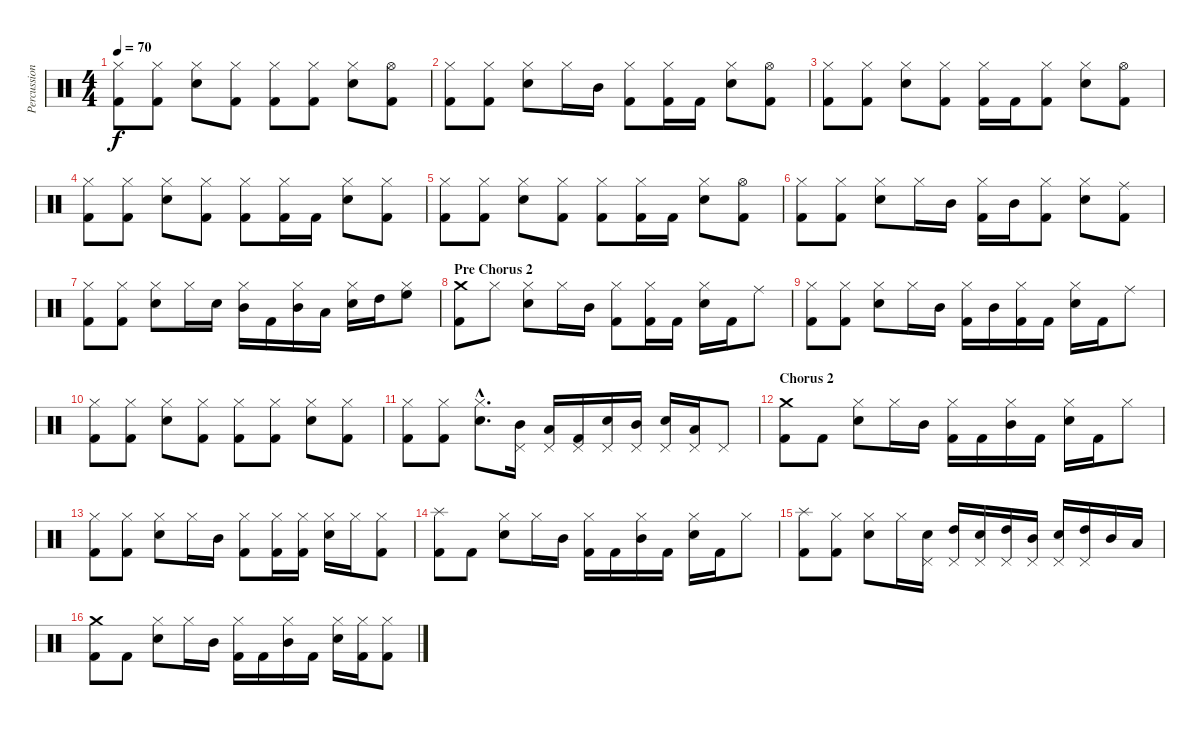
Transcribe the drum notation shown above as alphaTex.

\track ("Percussion" "Percussion") {instrument percussion}
\staff {score}
\articulation defaults
\ts (4 4)
\tempo 70
\clef neutral
\ks c
("Hi-Hat (closed)" "Kick (hit) 2").8{dy f} ("Hi-Hat (closed)" "Kick (hit) 2").8 ("Hi-Hat (closed)" "Electric Snare (hit)").8 ("Hi-Hat (closed)" "Kick (hit) 2").8 ("Hi-Hat (closed)" "Kick (hit) 2").8 ("Hi-Hat (closed)" "Kick (hit) 2").8 ("Hi-Hat (closed)" "Electric Snare (hit)").8 ("Hi-Hat (open)" "Kick (hit) 2").8 |
("Hi-Hat (closed)" "Kick (hit) 2").8 ("Hi-Hat (closed)" "Kick (hit) 2").8 ("Hi-Hat (closed)" "Electric Snare (hit)").8 "Hi-Hat (closed)".16 "Mid Tom (hit)".16 ("Hi-Hat (closed)" "Kick (hit) 2").8 ("Hi-Hat (closed)" "Kick (hit) 2").16 "Kick (hit) 2".16 ("Hi-Hat (closed)" "Electric Snare (hit)").8 ("Hi-Hat (open)" "Kick (hit) 2").8 |
("Hi-Hat (closed)" "Kick (hit) 2").8 ("Hi-Hat (closed)" "Kick (hit) 2").8 ("Hi-Hat (closed)" "Electric Snare (hit)").8 ("Hi-Hat (closed)" "Kick (hit) 2").8 ("Hi-Hat (closed)" "Kick (hit) 2").16 "Kick (hit) 2".16 ("Hi-Hat (closed)" "Kick (hit) 2").8 ("Hi-Hat (closed)" "Electric Snare (hit)").8 ("Hi-Hat (open)" "Kick (hit) 2").8 |
("Hi-Hat (closed)" "Kick (hit) 2").8 ("Hi-Hat (closed)" "Kick (hit) 2").8 ("Hi-Hat (closed)" "Electric Snare (hit)").8 ("Hi-Hat (closed)" "Kick (hit) 2").8 ("Hi-Hat (closed)" "Kick (hit) 2").8 ("Hi-Hat (closed)" "Kick (hit) 2").16 "Kick (hit) 2".16 ("Hi-Hat (closed)" "Electric Snare (hit)").8 ("Hi-Hat (closed)" "Kick (hit) 2").8 |
("Hi-Hat (closed)" "Kick (hit) 2").8 ("Hi-Hat (closed)" "Kick (hit) 2").8 ("Hi-Hat (closed)" "Electric Snare (hit)").8 ("Hi-Hat (closed)" "Kick (hit) 2").8 ("Hi-Hat (closed)" "Kick (hit) 2").8 ("Hi-Hat (closed)" "Kick (hit) 2").16 "Kick (hit) 2".16 ("Hi-Hat (closed)" "Electric Snare (hit)").8 ("Hi-Hat (open)" "Kick (hit) 2").8 |
("Hi-Hat (closed)" "Kick (hit) 2").8 ("Hi-Hat (closed)" "Kick (hit) 2").8 ("Hi-Hat (closed)" "Electric Snare (hit)").8 "Hi-Hat (closed)".16 "Mid Tom (hit)".16 ("Hi-Hat (closed)" "Kick (hit) 2").16 "Mid Tom (hit)".16 ("Hi-Hat (closed)" "Kick (hit) 2").8 ("Hi-Hat (closed)" "Electric Snare (hit)").8 ("Ride (middle)" "Kick (hit) 2").8 |
("Hi-Hat (closed)" "Kick (hit) 2").8 ("Hi-Hat (closed)" "Kick (hit) 2").8 ("Hi-Hat (closed)" "Electric Snare (hit)").8 "Hi-Hat (closed)".16 "Electric Snare (hit)".16 ("Hi-Hat (closed)" "Mid Tom (hit)").16 "Kick (hit) 2".16 ("Hi-Hat (closed)" "Mid Tom (hit)").16 "Low Tom (hit)".16 ("Hi-Hat (closed)" "Electric Snare (hit)").16 "High Tom (hit)".16 ("Hi-Hat (closed)" "High Floor Tom (hit)").8 |
\section ("" "Pre Chorus 2")
("Crash medium (hit)" "Kick (hit) 2").8 "Hi-Hat (closed)".8 ("Hi-Hat (closed)" "Electric Snare (hit)").8 "Hi-Hat (closed)".16 "Mid Tom (hit)".16 ("Hi-Hat (closed)" "Kick (hit) 2").8 ("Hi-Hat (closed)" "Kick (hit) 2").16 "Kick (hit) 2".16 ("Hi-Hat (closed)" "Electric Snare (hit)").16 "Kick (hit) 2".16 "Ride (middle)".8 |
("Hi-Hat (closed)" "Kick (hit) 2").8 ("Hi-Hat (closed)" "Kick (hit) 2").8 ("Hi-Hat (closed)" "Electric Snare (hit)").8 "Hi-Hat (closed)".16 "Mid Tom (hit)".16 ("Hi-Hat (closed)" "Kick (hit) 2").16 "Mid Tom (hit)".16 ("Hi-Hat (closed)" "Kick (hit) 2").16 "Kick (hit) 2".16 ("Hi-Hat (closed)" "Electric Snare (hit)").16 "Kick (hit) 2".16 "Ride (middle)".8 |
("Hi-Hat (closed)" "Kick (hit) 2").8 ("Hi-Hat (closed)" "Kick (hit) 2").8 ("Hi-Hat (closed)" "Electric Snare (hit)").8 ("Hi-Hat (closed)" "Kick (hit) 2").8 ("Hi-Hat (closed)" "Kick (hit) 2").8 ("Hi-Hat (closed)" "Kick (hit) 2").8 ("Hi-Hat (closed)" "Electric Snare (hit)").8 ("Hi-Hat (closed)" "Kick (hit) 2").8 |
("Hi-Hat (closed)" "Kick (hit) 2").8 ("Hi-Hat (closed)" "Kick (hit) 2").8 ("Hi-Hat (closed)"{hac} "Electric Snare (hit)"{hac}).8{d} ("Pedal Hi-Hat (hit)" "Mid Tom (hit)").16 ("Pedal Hi-Hat (hit)" "Low Tom (hit)").16 ("Pedal Hi-Hat (hit)" "Kick (hit) 2").16 ("Pedal Hi-Hat (hit)" "Electric Snare (hit)").16 ("Pedal Hi-Hat (hit)" "Mid Tom (hit)").16 ("Pedal Hi-Hat (hit)" "Electric Snare (hit)").16 ("Pedal Hi-Hat (hit)" "Low Tom (hit)").16 "Pedal Hi-Hat (hit)".8 |
\section ("" "Chorus 2")
("Crash medium (hit)" "Kick (hit) 2").8 "Kick (hit) 2".8 ("Hi-Hat (closed)" "Electric Snare (hit)").8 "Hi-Hat (closed)".16 "Mid Tom (hit)".16 ("Hi-Hat (closed)" "Kick (hit) 2").16 "Kick (hit) 2".16 ("Hi-Hat (closed)" "Mid Tom (hit)").16 "Kick (hit) 2".16 ("Hi-Hat (closed)" "Electric Snare (hit)").16 "Kick (hit) 2".16 "Hi-Hat (closed)".8 |
("Hi-Hat (closed)" "Kick (hit) 2").8 ("Hi-Hat (closed)" "Kick (hit) 2").8 ("Hi-Hat (closed)" "Electric Snare (hit)").8 "Hi-Hat (closed)".16 "Mid Tom (hit)".16 ("Hi-Hat (closed)" "Kick (hit) 2").8 ("Hi-Hat (closed)" "Kick (hit) 2").16 ("Hi-Hat (closed)" "Kick (hit) 2").16 ("Hi-Hat (closed)" "Electric Snare (hit)").16 "Hi-Hat (closed)".16 ("Hi-Hat (closed)" "Kick (hit) 2").8 |
("Splash (hit)" "Kick (hit) 2").8 "Kick (hit) 2".8 ("Hi-Hat (closed)" "Electric Snare (hit)").8 "Hi-Hat (closed)".16 "Mid Tom (hit)".16 ("Hi-Hat (closed)" "Kick (hit) 2").16 "Kick (hit) 2".16 ("Hi-Hat (closed)" "Mid Tom (hit)").16 "Kick (hit) 2".16 ("Hi-Hat (closed)" "Electric Snare (hit)").16 "Kick (hit) 2".16 "Hi-Hat (closed)".8 |
("Splash (hit)" "Kick (hit) 2").8 ("Hi-Hat (closed)" "Kick (hit) 2").8 ("Hi-Hat (closed)" "Electric Snare (hit)").8 "Hi-Hat (closed)".16 ("Pedal Hi-Hat (hit)" "Electric Snare (hit)").16 ("Pedal Hi-Hat (hit)" "High Tom (hit)").16 ("Pedal Hi-Hat (hit)" "Electric Snare (hit)").16 ("Pedal Hi-Hat (hit)" "High Tom (hit)").16 ("Pedal Hi-Hat (hit)" "Mid Tom (hit)").16 ("Pedal Hi-Hat (hit)" "Electric Snare (hit)").16 ("Pedal Hi-Hat (hit)" "High Tom (hit)").16 "Mid Tom (hit)".16 "Low Tom (hit)".16 |
("Crash medium (hit)" "Kick (hit) 2").8 "Kick (hit) 2".8 ("Hi-Hat (closed)" "Electric Snare (hit)").8 "Hi-Hat (closed)".16 "Mid Tom (hit)".16 ("Hi-Hat (closed)" "Kick (hit) 2").16 "Kick (hit) 2".16 ("Hi-Hat (closed)" "Mid Tom (hit)").16 "Kick (hit) 2".16 ("Hi-Hat (closed)" "Electric Snare (hit)").16 ("Hi-Hat (closed)" "Kick (hit) 2").16 ("Hi-Hat (closed)" "Kick (hit) 2").8
